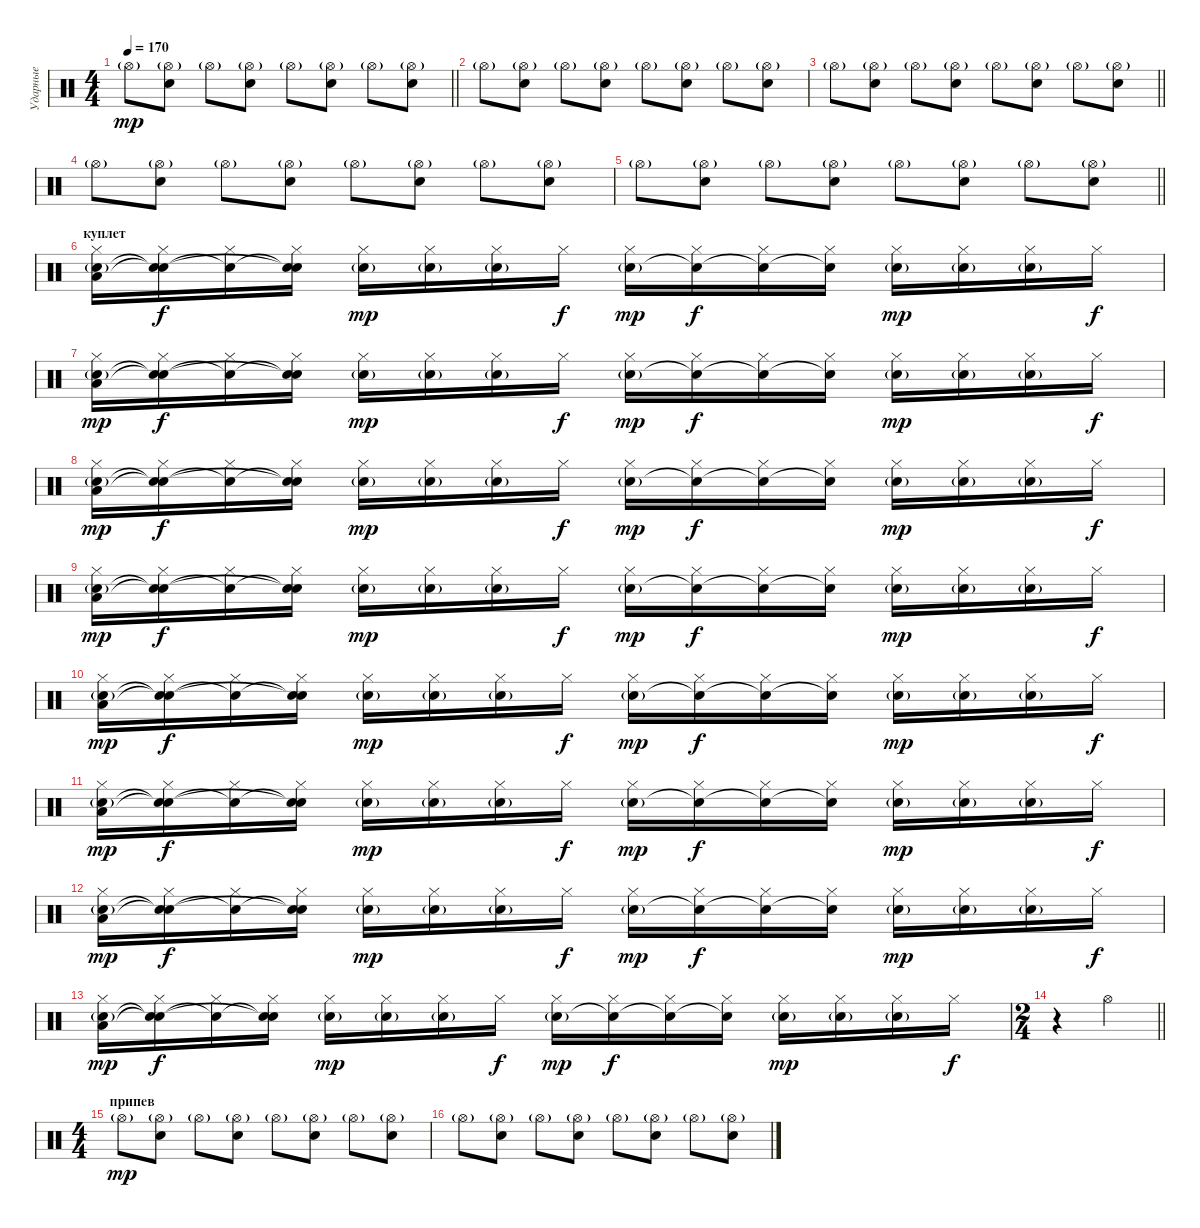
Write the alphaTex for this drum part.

\track ("Ударные" "Ударные") {instrument percussion}
\staff {score}
\articulation defaults
\ts (4 4)
\tempo 170
\clef neutral
\barLineRight lightlight
\ks c "Hi-Hat (open)"{g}.8{dy mp}
("Hi-Hat (open)"{g} "Snare (hit) 2").8 "Hi-Hat (open)"{g}.8 ("Hi-Hat (open)"{g} "Snare (hit) 2").8 "Hi-Hat (open)"{g}.8 ("Hi-Hat (open)"{g} "Snare (hit) 2").8 "Hi-Hat (open)"{g}.8 ("Hi-Hat (open)"{g} "Snare (hit) 2").8 |
"Hi-Hat (open)"{g}.8 ("Hi-Hat (open)"{g} "Snare (hit) 2").8 "Hi-Hat (open)"{g}.8 ("Hi-Hat (open)"{g} "Snare (hit) 2").8 "Hi-Hat (open)"{g}.8 ("Hi-Hat (open)"{g} "Snare (hit) 2").8 "Hi-Hat (open)"{g}.8 ("Hi-Hat (open)"{g} "Snare (hit) 2").8 |
\barLineRight lightlight "Hi-Hat (open)"{g}.8
("Hi-Hat (open)"{g} "Snare (hit) 2").8 "Hi-Hat (open)"{g}.8 ("Hi-Hat (open)"{g} "Snare (hit) 2").8 "Hi-Hat (open)"{g}.8 ("Hi-Hat (open)"{g} "Snare (hit) 2").8 "Hi-Hat (open)"{g}.8 ("Hi-Hat (open)"{g} "Snare (hit) 2").8 |
"Hi-Hat (open)"{g}.8 ("Hi-Hat (open)"{g} "Snare (hit) 2").8 "Hi-Hat (open)"{g}.8 ("Hi-Hat (open)"{g} "Snare (hit) 2").8 "Hi-Hat (open)"{g}.8 ("Hi-Hat (open)"{g} "Snare (hit) 2").8 "Hi-Hat (open)"{g}.8 ("Hi-Hat (open)"{g} "Snare (hit) 2").8 |
\barLineRight lightlight "Hi-Hat (open)"{g}.8
("Hi-Hat (open)"{g} "Snare (hit) 2").8 "Hi-Hat (open)"{g}.8 ("Hi-Hat (open)"{g} "Snare (hit) 2").8 "Hi-Hat (open)"{g}.8 ("Hi-Hat (open)"{g} "Snare (hit) 2").8 "Hi-Hat (open)"{g}.8 ("Hi-Hat (open)"{g} "Snare (hit) 2").8 |
\section ("" "куплет")
("Hi-Hat (closed)" "Low Tom (hit)" "Snare (hit) 2"{g}).16 ("Hi-Hat (closed)" "Snare (hit)"{t} "Snare (hit)"{t}).16{dy f} ("Hi-Hat (closed)" "Snare (hit)"{t}).16 ("Hi-Hat (closed)" "Snare (hit) 2"{t} "Snare (hit)"{t}).16 ("Hi-Hat (closed)" "Snare (hit) 2"{g}).16{dy mp} ("Hi-Hat (closed)" "Snare (hit) 2"{g}).16 ("Hi-Hat (closed)" "Snare (hit) 2"{g}).16 "Hi-Hat (closed)".16{dy f} ("Hi-Hat (closed)" "Snare (hit) 2"{g}).16{dy mp} ("Hi-Hat (closed)" "Snare (hit) 2"{t}).16{dy f} ("Hi-Hat (closed)" "Snare (hit) 2"{t}).16 ("Hi-Hat (closed)" "Snare (hit) 2"{t}).16 ("Hi-Hat (closed)" "Snare (hit) 2"{g}).16{dy mp} ("Hi-Hat (closed)" "Snare (hit) 2"{g}).16 ("Hi-Hat (closed)" "Snare (hit) 2"{g}).16 "Hi-Hat (closed)".16{dy f} |
("Hi-Hat (closed)" "Low Tom (hit)" "Snare (hit) 2"{g}).16{dy mp} ("Hi-Hat (closed)" "Snare (hit)"{t} "Snare (hit)"{t}).16{dy f} ("Hi-Hat (closed)" "Snare (hit)"{t}).16 ("Hi-Hat (closed)" "Snare (hit) 2"{t} "Snare (hit)"{t}).16 ("Hi-Hat (closed)" "Snare (hit) 2"{g}).16{dy mp} ("Hi-Hat (closed)" "Snare (hit) 2"{g}).16 ("Hi-Hat (closed)" "Snare (hit) 2"{g}).16 "Hi-Hat (closed)".16{dy f} ("Hi-Hat (closed)" "Snare (hit) 2"{g}).16{dy mp} ("Hi-Hat (closed)" "Snare (hit) 2"{t}).16{dy f} ("Hi-Hat (closed)" "Snare (hit) 2"{t}).16 ("Hi-Hat (closed)" "Snare (hit) 2"{t}).16 ("Hi-Hat (closed)" "Snare (hit) 2"{g}).16{dy mp} ("Hi-Hat (closed)" "Snare (hit) 2"{g}).16 ("Hi-Hat (closed)" "Snare (hit) 2"{g}).16 "Hi-Hat (closed)".16{dy f} |
("Hi-Hat (closed)" "Low Tom (hit)" "Snare (hit) 2"{g}).16{dy mp} ("Hi-Hat (closed)" "Snare (hit)"{t} "Snare (hit)"{t}).16{dy f} ("Hi-Hat (closed)" "Snare (hit)"{t}).16 ("Hi-Hat (closed)" "Snare (hit) 2"{t} "Snare (hit)"{t}).16 ("Hi-Hat (closed)" "Snare (hit) 2"{g}).16{dy mp} ("Hi-Hat (closed)" "Snare (hit) 2"{g}).16 ("Hi-Hat (closed)" "Snare (hit) 2"{g}).16 "Hi-Hat (closed)".16{dy f} ("Hi-Hat (closed)" "Snare (hit) 2"{g}).16{dy mp} ("Hi-Hat (closed)" "Snare (hit) 2"{t}).16{dy f} ("Hi-Hat (closed)" "Snare (hit) 2"{t}).16 ("Hi-Hat (closed)" "Snare (hit) 2"{t}).16 ("Hi-Hat (closed)" "Snare (hit) 2"{g}).16{dy mp} ("Hi-Hat (closed)" "Snare (hit) 2"{g}).16 ("Hi-Hat (closed)" "Snare (hit) 2"{g}).16 "Hi-Hat (closed)".16{dy f} |
("Hi-Hat (closed)" "Low Tom (hit)" "Snare (hit) 2"{g}).16{dy mp} ("Hi-Hat (closed)" "Snare (hit)"{t} "Snare (hit)"{t}).16{dy f} ("Hi-Hat (closed)" "Snare (hit)"{t}).16 ("Hi-Hat (closed)" "Snare (hit) 2"{t} "Snare (hit)"{t}).16 ("Hi-Hat (closed)" "Snare (hit) 2"{g}).16{dy mp} ("Hi-Hat (closed)" "Snare (hit) 2"{g}).16 ("Hi-Hat (closed)" "Snare (hit) 2"{g}).16 "Hi-Hat (closed)".16{dy f} ("Hi-Hat (closed)" "Snare (hit) 2"{g}).16{dy mp} ("Hi-Hat (closed)" "Snare (hit) 2"{t}).16{dy f} ("Hi-Hat (closed)" "Snare (hit) 2"{t}).16 ("Hi-Hat (closed)" "Snare (hit) 2"{t}).16 ("Hi-Hat (closed)" "Snare (hit) 2"{g}).16{dy mp} ("Hi-Hat (closed)" "Snare (hit) 2"{g}).16 ("Hi-Hat (closed)" "Snare (hit) 2"{g}).16 "Hi-Hat (closed)".16{dy f} |
("Hi-Hat (closed)" "Low Tom (hit)" "Snare (hit) 2"{g}).16{dy mp} ("Hi-Hat (closed)" "Snare (hit)"{t} "Snare (hit)"{t}).16{dy f} ("Hi-Hat (closed)" "Snare (hit)"{t}).16 ("Hi-Hat (closed)" "Snare (hit) 2"{t} "Snare (hit)"{t}).16 ("Hi-Hat (closed)" "Snare (hit) 2"{g}).16{dy mp} ("Hi-Hat (closed)" "Snare (hit) 2"{g}).16 ("Hi-Hat (closed)" "Snare (hit) 2"{g}).16 "Hi-Hat (closed)".16{dy f} ("Hi-Hat (closed)" "Snare (hit) 2"{g}).16{dy mp} ("Hi-Hat (closed)" "Snare (hit) 2"{t}).16{dy f} ("Hi-Hat (closed)" "Snare (hit) 2"{t}).16 ("Hi-Hat (closed)" "Snare (hit) 2"{t}).16 ("Hi-Hat (closed)" "Snare (hit) 2"{g}).16{dy mp} ("Hi-Hat (closed)" "Snare (hit) 2"{g}).16 ("Hi-Hat (closed)" "Snare (hit) 2"{g}).16 "Hi-Hat (closed)".16{dy f} |
("Hi-Hat (closed)" "Low Tom (hit)" "Snare (hit) 2"{g}).16{dy mp} ("Hi-Hat (closed)" "Snare (hit)"{t} "Snare (hit)"{t}).16{dy f} ("Hi-Hat (closed)" "Snare (hit)"{t}).16 ("Hi-Hat (closed)" "Snare (hit) 2"{t} "Snare (hit)"{t}).16 ("Hi-Hat (closed)" "Snare (hit) 2"{g}).16{dy mp} ("Hi-Hat (closed)" "Snare (hit) 2"{g}).16 ("Hi-Hat (closed)" "Snare (hit) 2"{g}).16 "Hi-Hat (closed)".16{dy f} ("Hi-Hat (closed)" "Snare (hit) 2"{g}).16{dy mp} ("Hi-Hat (closed)" "Snare (hit) 2"{t}).16{dy f} ("Hi-Hat (closed)" "Snare (hit) 2"{t}).16 ("Hi-Hat (closed)" "Snare (hit) 2"{t}).16 ("Hi-Hat (closed)" "Snare (hit) 2"{g}).16{dy mp} ("Hi-Hat (closed)" "Snare (hit) 2"{g}).16 ("Hi-Hat (closed)" "Snare (hit) 2"{g}).16 "Hi-Hat (closed)".16{dy f} |
("Hi-Hat (closed)" "Low Tom (hit)" "Snare (hit) 2"{g}).16{dy mp} ("Hi-Hat (closed)" "Snare (hit)"{t} "Snare (hit)"{t}).16{dy f} ("Hi-Hat (closed)" "Snare (hit)"{t}).16 ("Hi-Hat (closed)" "Snare (hit) 2"{t} "Snare (hit)"{t}).16 ("Hi-Hat (closed)" "Snare (hit) 2"{g}).16{dy mp} ("Hi-Hat (closed)" "Snare (hit) 2"{g}).16 ("Hi-Hat (closed)" "Snare (hit) 2"{g}).16 "Hi-Hat (closed)".16{dy f} ("Hi-Hat (closed)" "Snare (hit) 2"{g}).16{dy mp} ("Hi-Hat (closed)" "Snare (hit) 2"{t}).16{dy f} ("Hi-Hat (closed)" "Snare (hit) 2"{t}).16 ("Hi-Hat (closed)" "Snare (hit) 2"{t}).16 ("Hi-Hat (closed)" "Snare (hit) 2"{g}).16{dy mp} ("Hi-Hat (closed)" "Snare (hit) 2"{g}).16 ("Hi-Hat (closed)" "Snare (hit) 2"{g}).16 "Hi-Hat (closed)".16{dy f} |
("Hi-Hat (closed)" "Low Tom (hit)" "Snare (hit) 2"{g}).16{dy mp} ("Hi-Hat (closed)" "Snare (hit)"{t} "Snare (hit)"{t}).16{dy f} ("Hi-Hat (closed)" "Snare (hit)"{t}).16 ("Hi-Hat (closed)" "Snare (hit) 2"{t} "Snare (hit)"{t}).16 ("Hi-Hat (closed)" "Snare (hit) 2"{g}).16{dy mp} ("Hi-Hat (closed)" "Snare (hit) 2"{g}).16 ("Hi-Hat (closed)" "Snare (hit) 2"{g}).16 "Hi-Hat (closed)".16{dy f} ("Hi-Hat (closed)" "Snare (hit) 2"{g}).16{dy mp} ("Hi-Hat (closed)" "Snare (hit) 2"{t}).16{dy f} ("Hi-Hat (closed)" "Snare (hit) 2"{t}).16 ("Hi-Hat (closed)" "Snare (hit) 2"{t}).16 ("Hi-Hat (closed)" "Snare (hit) 2"{g}).16{dy mp} ("Hi-Hat (closed)" "Snare (hit) 2"{g}).16 ("Hi-Hat (closed)" "Snare (hit) 2"{g}).16 "Hi-Hat (closed)".16{dy f} |
\ts (2 4)
\barLineRight lightlight
r.4 "Hi-Hat (open)".4 |
\ts (4 4)
\section ("" "припев")
"Hi-Hat (open)"{g}.8{dy mp} ("Hi-Hat (open)"{g} "Snare (hit) 2").8 "Hi-Hat (open)"{g}.8 ("Hi-Hat (open)"{g} "Snare (hit) 2").8 "Hi-Hat (open)"{g}.8 ("Hi-Hat (open)"{g} "Snare (hit) 2").8 "Hi-Hat (open)"{g}.8 ("Hi-Hat (open)"{g} "Snare (hit) 2").8 |
"Hi-Hat (open)"{g}.8 ("Hi-Hat (open)"{g} "Snare (hit) 2").8 "Hi-Hat (open)"{g}.8 ("Hi-Hat (open)"{g} "Snare (hit) 2").8 "Hi-Hat (open)"{g}.8 ("Hi-Hat (open)"{g} "Snare (hit) 2").8 "Hi-Hat (open)"{g}.8 ("Hi-Hat (open)"{g} "Snare (hit) 2").8
